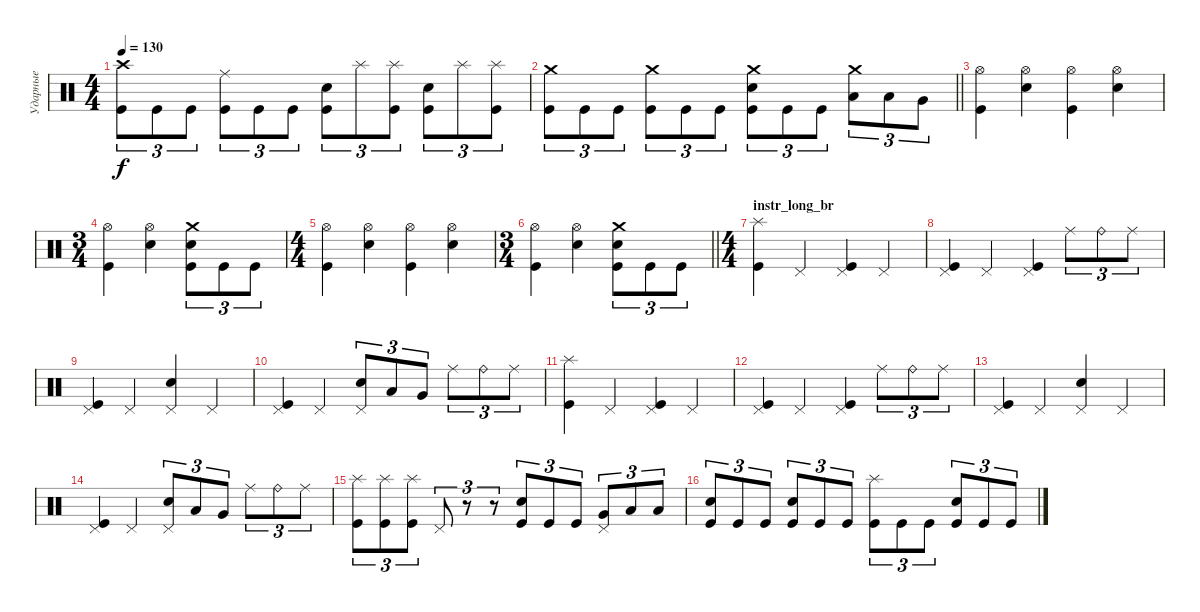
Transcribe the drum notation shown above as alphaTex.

\track ("Ударные" "Ударные") {instrument percussion}
\staff {score}
\articulation defaults
\ts (4 4)
\tempo 130
\clef neutral
\ks c
("Crash high (hit)" "Kick (hit)").8{tu (3 2) dy f} "Kick (hit)".8{tu (3 2)} "Kick (hit)".8{tu (3 2)} ("Ride (middle)" "Kick (hit)").8{tu (3 2)} "Kick (hit)".8{tu (3 2)} "Kick (hit)".8{tu (3 2)} ("Electric Snare (hit)" "Kick (hit)").8{tu (3 2)} "Splash (hit)".8{tu (3 2)} ("Splash (hit)" "Kick (hit)").8{tu (3 2)} ("Electric Snare (hit)" "Kick (hit)").8{tu (3 2)} "Splash (hit)".8{tu (3 2)} ("Splash (hit)" "Kick (hit)").8{tu (3 2)} |
\barLineRight lightlight
("Crash medium (hit)" "Kick (hit)").8{tu (3 2)} "Kick (hit)".8{tu (3 2)} "Kick (hit)".8{tu (3 2)} ("Crash medium (hit)" "Kick (hit)").8{tu (3 2)} "Kick (hit)".8{tu (3 2)} "Kick (hit)".8{tu (3 2)} ("Crash medium (hit)" "Electric Snare (hit)" "Kick (hit)").8{tu (3 2)} "Kick (hit)".8{tu (3 2)} "Kick (hit)".8{tu (3 2)} ("Crash medium (hit)" "Low Tom (hit)").8{tu (3 2)} "Low Tom (hit)".8{tu (3 2)} "Very Low Tom (hit)".8{tu (3 2)} |
\section ("" " ")
("Hi-Hat (open)" "Kick (hit)").4 ("Hi-Hat (open)" "Electric Snare (hit)").4 ("Hi-Hat (open)" "Kick (hit)").4 ("Hi-Hat (open)" "Electric Snare (hit)").4 |
\ts (3 4)
("Hi-Hat (open)" "Kick (hit)").4 ("Hi-Hat (open)" "Electric Snare (hit)").4 ("Crash medium (hit)" "Kick (hit)" "Electric Snare (hit)").8{tu (3 2)} "Kick (hit)".8{tu (3 2)} "Kick (hit)".8{tu (3 2)} |
\ts (4 4)
("Hi-Hat (open)" "Kick (hit)").4 ("Hi-Hat (open)" "Electric Snare (hit)").4 ("Hi-Hat (open)" "Kick (hit)").4 ("Hi-Hat (open)" "Electric Snare (hit)").4 |
\ts (3 4)
\barLineRight lightlight
("Hi-Hat (open)" "Kick (hit)").4 ("Hi-Hat (open)" "Electric Snare (hit)").4 ("Crash medium (hit)" "Kick (hit)" "Electric Snare (hit)").8{tu (3 2)} "Kick (hit)".8{tu (3 2)} "Kick (hit)".8{tu (3 2)} |
\ts (4 4)
\section ("" "instr_long_br")
("Kick (hit)" "Splash (hit)").4 "Pedal Hi-Hat (hit)".4 ("Pedal Hi-Hat (hit)" "Kick (hit)").4 "Pedal Hi-Hat (hit)".4 |
("Kick (hit)" "Pedal Hi-Hat (hit)").4 "Pedal Hi-Hat (hit)".4 ("Pedal Hi-Hat (hit)" "Kick (hit)").4 "Ride (middle)".8{tu (3 2)} "Ride (bell)".8{tu (3 2)} "Ride (middle)".8{tu (3 2)} |
("Kick (hit)" "Pedal Hi-Hat (hit)").4 "Pedal Hi-Hat (hit)".4 ("Pedal Hi-Hat (hit)" "Electric Snare (hit)").4 "Pedal Hi-Hat (hit)".4 |
("Kick (hit)" "Pedal Hi-Hat (hit)").4 "Pedal Hi-Hat (hit)".4 ("Pedal Hi-Hat (hit)" "Electric Snare (hit)").8{tu (3 2)} "Low Tom (hit)".8{tu (3 2)} "Very Low Tom (hit)".8{tu (3 2)} "Ride (middle)".8{tu (3 2)} "Ride (bell)".8{tu (3 2)} "Ride (middle)".8{tu (3 2)} |
("Kick (hit)" "Splash (hit)").4 "Pedal Hi-Hat (hit)".4 ("Pedal Hi-Hat (hit)" "Kick (hit)").4 "Pedal Hi-Hat (hit)".4 |
("Kick (hit)" "Pedal Hi-Hat (hit)").4 "Pedal Hi-Hat (hit)".4 ("Pedal Hi-Hat (hit)" "Kick (hit)").4 "Ride (middle)".8{tu (3 2)} "Ride (bell)".8{tu (3 2)} "Ride (middle)".8{tu (3 2)} |
("Kick (hit)" "Pedal Hi-Hat (hit)").4 "Pedal Hi-Hat (hit)".4 ("Pedal Hi-Hat (hit)" "Electric Snare (hit)").4 "Pedal Hi-Hat (hit)".4 |
("Kick (hit)" "Pedal Hi-Hat (hit)").4 "Pedal Hi-Hat (hit)".4 ("Pedal Hi-Hat (hit)" "Electric Snare (hit)").8{tu (3 2)} "Low Tom (hit)".8{tu (3 2)} "Very Low Tom (hit)".8{tu (3 2)} "Ride (middle)".8{tu (3 2)} "Ride (bell)".8{tu (3 2)} "Ride (middle)".8{tu (3 2)} |
("Splash (hit)" "Kick (hit)").8{tu (3 2)} ("Splash (hit)" "Kick (hit)").8{tu (3 2)} ("Splash (hit)" "Kick (hit)").8{tu (3 2)} "Pedal Hi-Hat (hit)".8{tu (3 2)} r.8{tu (3 2)} r.8{tu (3 2)} ("Electric Snare (hit)" "Kick (hit)").8{tu (3 2)} "Kick (hit)".8{tu (3 2)} "Kick (hit)".8{tu (3 2)} ("Very Low Tom (hit)" "Pedal Hi-Hat (hit)").8{tu (3 2)} "Low Floor Tom (hit)".8{tu (3 2)} "Low Floor Tom (hit)".8{tu (3 2)} |
("Electric Snare (hit)" "Kick (hit)").8{tu (3 2)} "Kick (hit)".8{tu (3 2)} "Kick (hit)".8{tu (3 2)} ("Kick (hit)" "Electric Snare (hit)").8{tu (3 2)} "Kick (hit)".8{tu (3 2)} "Kick (hit)".8{tu (3 2)} ("Kick (hit)" "Splash (hit)").8{tu (3 2)} "Kick (hit)".8{tu (3 2)} "Kick (hit)".8{tu (3 2)} ("Kick (hit)" "Electric Snare (hit)").8{tu (3 2)} "Kick (hit)".8{tu (3 2)} "Kick (hit)".8{tu (3 2)}
